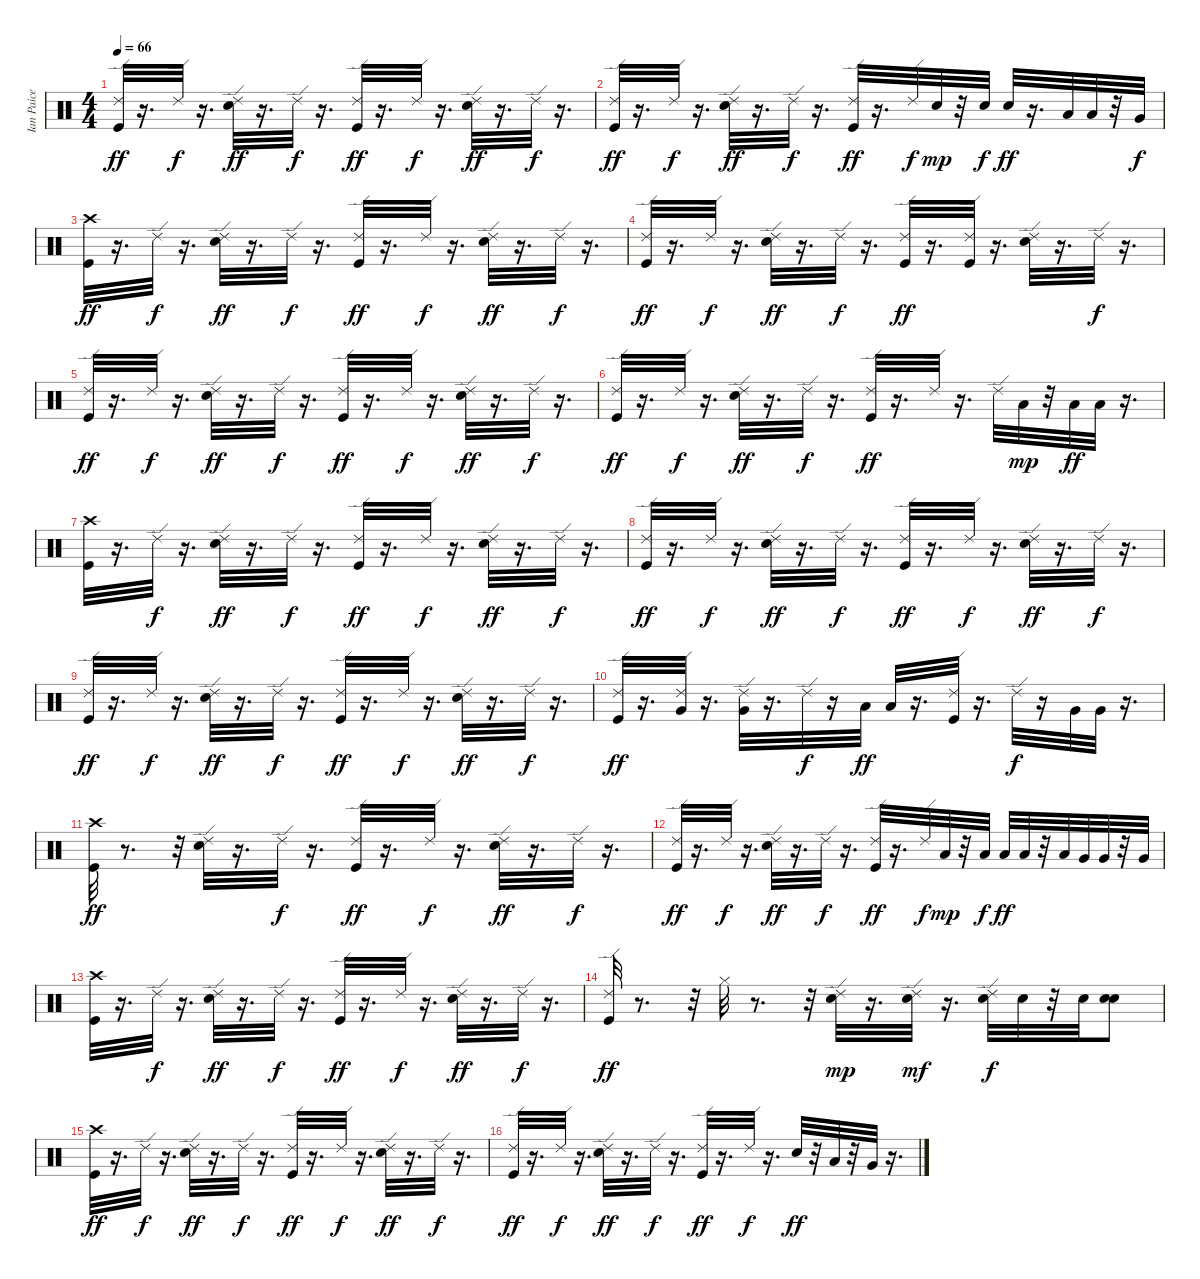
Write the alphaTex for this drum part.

\track ("Ian Paice" "Ian Paice") {instrument percussion}
\staff {score}
\articulation defaults
\ts (4 4)
\tempo 66
\clef neutral
\ks c
("Kick (hit)" "Ride (edge) 2").32{dy ff} r.16{d} "Ride (edge) 2".32{dy f} r.16{d} ("Snare (hit) 2" "Ride (edge) 2").32{dy ff} r.16{d} "Ride (edge) 2".32{dy f} r.16{d} ("Kick (hit)" "Ride (edge) 2").32{dy ff} r.16{d} "Ride (edge) 2".32{dy f} r.16{d} ("Snare (hit) 2" "Ride (edge) 2").32{dy ff} r.16{d} "Ride (edge) 2".32{dy f} r.16{d} |
("Kick (hit)" "Ride (edge) 2").32{dy ff} r.16{d} "Ride (edge) 2".32{dy f} r.16{d} ("Snare (hit) 2" "Ride (edge) 2").32{dy ff} r.16{d} "Ride (edge) 2".32{dy f} r.16{d} ("Kick (hit)" "Ride (edge) 2").32{dy ff} r.16{d} "Ride (edge) 2".32{dy f} "Snare (hit) 2".32{dy mp} r.32 "Snare (hit) 2".32{dy f} "Snare (hit) 2".32{dy ff} r.16{d} "Low Tom (hit)".32 "Low Tom (hit)".32 r.32 "Very Low Tom (hit)".32{dy f} |
("Kick (hit)" "Crash high (hit)").32{dy ff} r.16{d} "Ride (edge) 2".32{dy f} r.16{d} ("Snare (hit) 2" "Ride (edge) 2").32{dy ff} r.16{d} "Ride (edge) 2".32{dy f} r.16{d} ("Kick (hit)" "Ride (edge) 2").32{dy ff} r.16{d} "Ride (edge) 2".32{dy f} r.16{d} ("Snare (hit) 2" "Ride (edge) 2").32{dy ff} r.16{d} "Ride (edge) 2".32{dy f} r.16{d} |
("Kick (hit)" "Ride (edge) 2").32{dy ff} r.16{d} "Ride (edge) 2".32{dy f} r.16{d} ("Snare (hit) 2" "Ride (edge) 2").32{dy ff} r.16{d} "Ride (edge) 2".32{dy f} r.16{d} ("Kick (hit)" "Ride (edge) 2").32{dy ff} r.16{d} ("Kick (hit)" "Ride (edge) 2").32 r.16{d} ("Snare (hit) 2" "Ride (edge) 2").32 r.16{d} "Ride (edge) 2".32{dy f} r.16{d} |
("Kick (hit)" "Ride (edge) 2").32{dy ff} r.16{d} "Ride (edge) 2".32{dy f} r.16{d} ("Snare (hit) 2" "Ride (edge) 2").32{dy ff} r.16{d} "Ride (edge) 2".32{dy f} r.16{d} ("Kick (hit)" "Ride (edge) 2").32{dy ff} r.16{d} "Ride (edge) 2".32{dy f} r.16{d} ("Snare (hit) 2" "Ride (edge) 2").32{dy ff} r.16{d} "Ride (edge) 2".32{dy f} r.16{d} |
("Kick (hit)" "Ride (edge) 2").32{dy ff} r.16{d} "Ride (edge) 2".32{dy f} r.16{d} ("Snare (hit) 2" "Ride (edge) 2").32{dy ff} r.16{d} "Ride (edge) 2".32{dy f} r.16{d} ("Kick (hit)" "Ride (edge) 2").32{dy ff} r.16{d} "Ride (edge) 2".32 r.16{d} "Ride (edge) 2".32 "Low Tom (hit)".32{dy mp} r.32 "Low Tom (hit)".32{dy ff} "Low Tom (hit)".32 r.16{d} |
("Crash high (hit)" "Kick (hit)").32 r.16{d} "Ride (edge) 2".32{dy f} r.16{d} ("Snare (hit) 2" "Ride (edge) 2").32{dy ff} r.16{d} "Ride (edge) 2".32{dy f} r.16{d} ("Kick (hit)" "Ride (edge) 2").32{dy ff} r.16{d} "Ride (edge) 2".32{dy f} r.16{d} ("Snare (hit) 2" "Ride (edge) 2").32{dy ff} r.16{d} "Ride (edge) 2".32{dy f} r.16{d} |
("Kick (hit)" "Ride (edge) 2").32{dy ff} r.16{d} "Ride (edge) 2".32{dy f} r.16{d} ("Snare (hit) 2" "Ride (edge) 2").32{dy ff} r.16{d} "Ride (edge) 2".32{dy f} r.16{d} ("Kick (hit)" "Ride (edge) 2").32{dy ff} r.16{d} "Ride (edge) 2".32{dy f} r.16{d} ("Snare (hit) 2" "Ride (edge) 2").32{dy ff} r.16{d} "Ride (edge) 2".32{dy f} r.16{d} |
("Kick (hit)" "Ride (edge) 2").32{dy ff} r.16{d} "Ride (edge) 2".32{dy f} r.16{d} ("Snare (hit) 2" "Ride (edge) 2").32{dy ff} r.16{d} "Ride (edge) 2".32{dy f} r.16{d} ("Kick (hit)" "Ride (edge) 2").32{dy ff} r.16{d} "Ride (edge) 2".32{dy f} r.16{d} ("Snare (hit) 2" "Ride (edge) 2").32{dy ff} r.16{d} "Ride (edge) 2".32{dy f} r.16{d} |
("Kick (hit)" "Ride (edge) 2").32{dy ff} r.16{d} ("Very Low Tom (hit)" "Ride (edge) 2").32 r.16{d} ("Very Low Tom (hit)" "Ride (edge) 2").32 r.16{d} "Ride (edge) 2".32{dy f} r.16 "Low Floor Tom (hit)".32{dy ff} "Low Floor Tom (hit)".32 r.16{d} ("Kick (hit)" "Ride (edge) 2").32 r.16{d} "Ride (edge) 2".32{dy f} r.16 "Very Low Tom (hit)".32 "Very Low Tom (hit)".32 r.16{d} |
("Kick (hit)" "Crash high (hit)").32{dy ff} r.8{d} r.32 ("Snare (hit) 2" "Ride (edge) 2").32 r.16{d} "Ride (edge) 2".32{dy f} r.16{d} ("Kick (hit)" "Ride (edge) 2").32{dy ff} r.16{d} "Ride (edge) 2".32{dy f} r.16{d} ("Snare (hit) 2" "Ride (edge) 2").32{dy ff} r.16{d} "Ride (edge) 2".32{dy f} r.16{d} |
("Kick (hit)" "Ride (edge) 2").32{dy ff} r.16{d} "Ride (edge) 2".32{dy f} r.16{d} ("Snare (hit) 2" "Ride (edge) 2").32{dy ff} r.16{d} "Ride (edge) 2".32{dy f} r.16{d} ("Kick (hit)" "Ride (edge) 2").32{dy ff} r.16{d} "Ride (edge) 2".32{dy f} "Low Tom (hit)".32{dy mp} r.32 "Low Tom (hit)".32{dy f} "Low Tom (hit)".32{dy ff} "Low Tom (hit)".32 r.32 "Low Tom (hit)".32 "Very Low Tom (hit)".32 "Very Low Tom (hit)".32 r.32 "Very Low Tom (hit)".32 |
("Kick (hit)" "Crash high (hit)").32 r.16{d} "Ride (edge) 2".32{dy f} r.16{d} ("Snare (hit) 2" "Ride (edge) 2").32{dy ff} r.16{d} "Ride (edge) 2".32{dy f} r.16{d} ("Kick (hit)" "Ride (edge) 2").32{dy ff} r.16{d} "Ride (edge) 2".32{dy f} r.16{d} ("Snare (hit) 2" "Ride (edge) 2").32{dy ff} r.16{d} "Ride (edge) 2".32{dy f} r.16{d} |
("Kick (hit)" "Ride (edge) 2").32{dy ff} r.8{d} r.32 "Hi-Hat (closed)".32 r.8{d} r.32 ("Snare (hit) 2" "Ride (edge) 2").32{dy mp} r.16{d} ("Ride (edge) 2" "Snare (hit) 2").32{dy mf} r.16{d} ("Ride (edge) 2" "Snare (hit) 2").32{dy f} "Snare (hit) 2".32 r.32 "Snare (hit) 2".32 ("Snare (hit) 2" "Snare (hit) 2").8 |
("Kick (hit)" "Crash high (hit)").32{dy ff} r.16{d} "Ride (edge) 2".32{dy f} r.16{d} ("Snare (hit) 2" "Ride (edge) 2").32{dy ff} r.16{d} "Ride (edge) 2".32{dy f} r.16{d} ("Kick (hit)" "Ride (edge) 2").32{dy ff} r.16{d} "Ride (edge) 2".32{dy f} r.16{d} ("Snare (hit) 2" "Ride (edge) 2").32{dy ff} r.16{d} "Ride (edge) 2".32{dy f} r.16{d} |
("Kick (hit)" "Ride (edge) 2").32{dy ff} r.16{d} "Ride (edge) 2".32{dy f} r.16{d} ("Snare (hit) 2" "Ride (edge) 2").32{dy ff} r.16{d} "Ride (edge) 2".32{dy f} r.16{d} ("Kick (hit)" "Ride (edge) 2").32{dy ff} r.16{d} "Ride (edge) 2".32{dy f} r.16{d} "Snare (hit) 2".32{dy ff} r.32 "Low Tom (hit)".32 r.32 "Very Low Tom (hit)".32 r.16{d}
